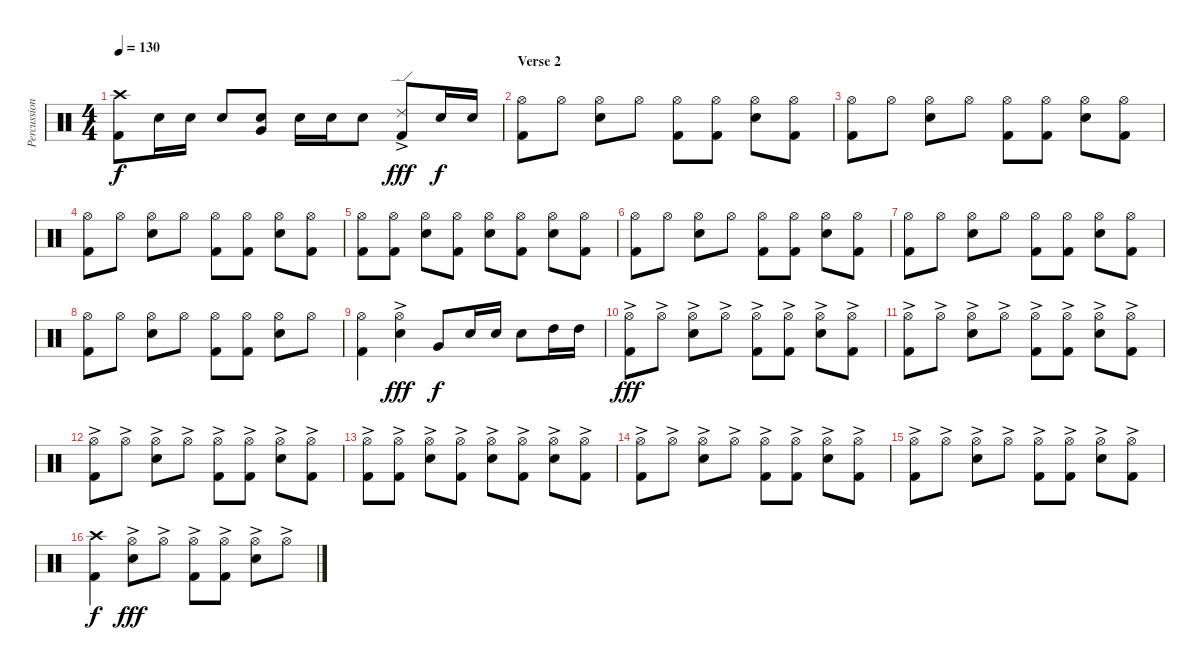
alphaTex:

\track ("Percussion" "Percussion") {instrument percussion}
\staff {score}
\articulation defaults
\ts (4 4)
\tempo 130
\clef neutral
\ks c
("Crash high (hit)" "Kick (hit) 2").8{dy f} "Electric Snare (hit)".16 "Electric Snare (hit)".16 "Electric Snare (hit)".8 ("Very Low Tom (hit)" "Electric Snare (hit)").8 "Electric Snare (hit)".16 "Electric Snare (hit)".16 "Electric Snare (hit)".8 ("Ride (edge) 2"{ac} "Kick (hit) 2").8{dy fff} "Electric Snare (hit)".16{dy f} "Electric Snare (hit)".16 |
\section ("" "Verse 2")
("Hi-Hat (open)" "Kick (hit) 2").8 "Hi-Hat (open)".8 ("Hi-Hat (open)" "Electric Snare (hit)").8 "Hi-Hat (open)".8 ("Hi-Hat (open)" "Kick (hit) 2").8 ("Hi-Hat (open)" "Kick (hit) 2").8 ("Hi-Hat (open)" "Electric Snare (hit)").8 ("Hi-Hat (open)" "Kick (hit) 2").8 |
("Hi-Hat (open)" "Kick (hit) 2").8 "Hi-Hat (open)".8 ("Hi-Hat (open)" "Electric Snare (hit)").8 "Hi-Hat (open)".8 ("Hi-Hat (open)" "Kick (hit) 2").8 ("Hi-Hat (open)" "Kick (hit) 2").8 ("Hi-Hat (open)" "Electric Snare (hit)").8 ("Hi-Hat (open)" "Kick (hit) 2").8 |
("Hi-Hat (open)" "Kick (hit) 2").8 "Hi-Hat (open)".8 ("Hi-Hat (open)" "Electric Snare (hit)").8 "Hi-Hat (open)".8 ("Hi-Hat (open)" "Kick (hit) 2").8 ("Hi-Hat (open)" "Kick (hit) 2").8 ("Hi-Hat (open)" "Electric Snare (hit)").8 ("Hi-Hat (open)" "Kick (hit) 2").8 |
("Hi-Hat (open)" "Kick (hit) 2").8 ("Hi-Hat (open)" "Kick (hit) 2").8 ("Hi-Hat (open)" "Electric Snare (hit)").8 ("Hi-Hat (open)" "Kick (hit) 2").8 ("Hi-Hat (open)" "Electric Snare (hit)").8 ("Hi-Hat (open)" "Kick (hit) 2").8 ("Hi-Hat (open)" "Electric Snare (hit)").8 ("Hi-Hat (open)" "Kick (hit) 2").8 |
("Hi-Hat (open)" "Kick (hit) 2").8 "Hi-Hat (open)".8 ("Hi-Hat (open)" "Electric Snare (hit)").8 "Hi-Hat (open)".8 ("Hi-Hat (open)" "Kick (hit) 2").8 ("Hi-Hat (open)" "Kick (hit) 2").8 ("Hi-Hat (open)" "Electric Snare (hit)").8 ("Hi-Hat (open)" "Kick (hit) 2").8 |
("Hi-Hat (open)" "Kick (hit) 2").8 "Hi-Hat (open)".8 ("Hi-Hat (open)" "Electric Snare (hit)").8 "Hi-Hat (open)".8 ("Hi-Hat (open)" "Kick (hit) 2").8 ("Hi-Hat (open)" "Kick (hit) 2").8 ("Hi-Hat (open)" "Electric Snare (hit)").8 ("Hi-Hat (open)" "Kick (hit) 2").8 |
("Hi-Hat (open)" "Kick (hit) 2").8 "Hi-Hat (open)".8 ("Hi-Hat (open)" "Electric Snare (hit)").8 "Hi-Hat (open)".8 ("Hi-Hat (open)" "Kick (hit) 2").8 ("Hi-Hat (open)" "Kick (hit) 2").8 ("Hi-Hat (open)" "Electric Snare (hit)").8 "Hi-Hat (open)".8 |
("Hi-Hat (open)" "Kick (hit) 2").4 ("Hi-Hat (open)"{ac} "Electric Snare (hit)").4{dy fff} "Very Low Tom (hit)".8{dy f} "Electric Snare (hit)".16 "Electric Snare (hit)".16 "Electric Snare (hit)".8 "High Tom (hit)".16 "High Tom (hit)".16 |
("Hi-Hat (open)"{ac} "Kick (hit) 2").8{dy fff} "Hi-Hat (open)"{ac}.8 ("Hi-Hat (open)"{ac} "Electric Snare (hit)").8 "Hi-Hat (open)"{ac}.8 ("Hi-Hat (open)"{ac} "Kick (hit) 2").8 ("Hi-Hat (open)"{ac} "Kick (hit) 2").8 ("Hi-Hat (open)"{ac} "Electric Snare (hit)").8 ("Hi-Hat (open)"{ac} "Kick (hit) 2").8 |
("Hi-Hat (open)"{ac} "Kick (hit) 2").8 "Hi-Hat (open)"{ac}.8 ("Hi-Hat (open)"{ac} "Electric Snare (hit)").8 "Hi-Hat (open)"{ac}.8 ("Hi-Hat (open)"{ac} "Kick (hit) 2").8 ("Hi-Hat (open)"{ac} "Kick (hit) 2").8 ("Hi-Hat (open)"{ac} "Electric Snare (hit)").8 ("Hi-Hat (open)"{ac} "Kick (hit) 2").8 |
("Hi-Hat (open)"{ac} "Kick (hit) 2").8 "Hi-Hat (open)"{ac}.8 ("Hi-Hat (open)"{ac} "Electric Snare (hit)").8 "Hi-Hat (open)"{ac}.8 ("Hi-Hat (open)"{ac} "Kick (hit) 2").8 ("Hi-Hat (open)"{ac} "Kick (hit) 2").8 ("Hi-Hat (open)"{ac} "Electric Snare (hit)").8 ("Hi-Hat (open)"{ac} "Kick (hit) 2").8 |
("Hi-Hat (open)"{ac} "Kick (hit) 2").8 ("Hi-Hat (open)"{ac} "Kick (hit) 2").8 ("Hi-Hat (open)"{ac} "Electric Snare (hit)").8 ("Hi-Hat (open)"{ac} "Kick (hit) 2").8 ("Hi-Hat (open)"{ac} "Electric Snare (hit)").8 ("Hi-Hat (open)"{ac} "Kick (hit) 2").8 ("Hi-Hat (open)"{ac} "Electric Snare (hit)").8 ("Hi-Hat (open)"{ac} "Kick (hit) 2").8 |
("Hi-Hat (open)"{ac} "Kick (hit) 2").8 "Hi-Hat (open)"{ac}.8 ("Hi-Hat (open)"{ac} "Electric Snare (hit)").8 "Hi-Hat (open)"{ac}.8 ("Hi-Hat (open)"{ac} "Kick (hit) 2").8 ("Hi-Hat (open)"{ac} "Kick (hit) 2").8 ("Hi-Hat (open)"{ac} "Electric Snare (hit)").8 ("Hi-Hat (open)"{ac} "Kick (hit) 2").8 |
("Hi-Hat (open)"{ac} "Kick (hit) 2").8 "Hi-Hat (open)"{ac}.8 ("Hi-Hat (open)"{ac} "Electric Snare (hit)").8 "Hi-Hat (open)"{ac}.8 ("Hi-Hat (open)"{ac} "Kick (hit) 2").8 ("Hi-Hat (open)"{ac} "Kick (hit) 2").8 ("Hi-Hat (open)"{ac} "Electric Snare (hit)").8 ("Hi-Hat (open)"{ac} "Kick (hit) 2").8 |
("Crash high (hit)" "Kick (hit) 2").4{dy f} ("Hi-Hat (open)"{ac} "Electric Snare (hit)").8{dy fff} "Hi-Hat (open)"{ac}.8 ("Hi-Hat (open)"{ac} "Kick (hit) 2").8 ("Hi-Hat (open)"{ac} "Kick (hit) 2").8 ("Hi-Hat (open)"{ac} "Electric Snare (hit)").8 "Hi-Hat (open)"{ac}.8
